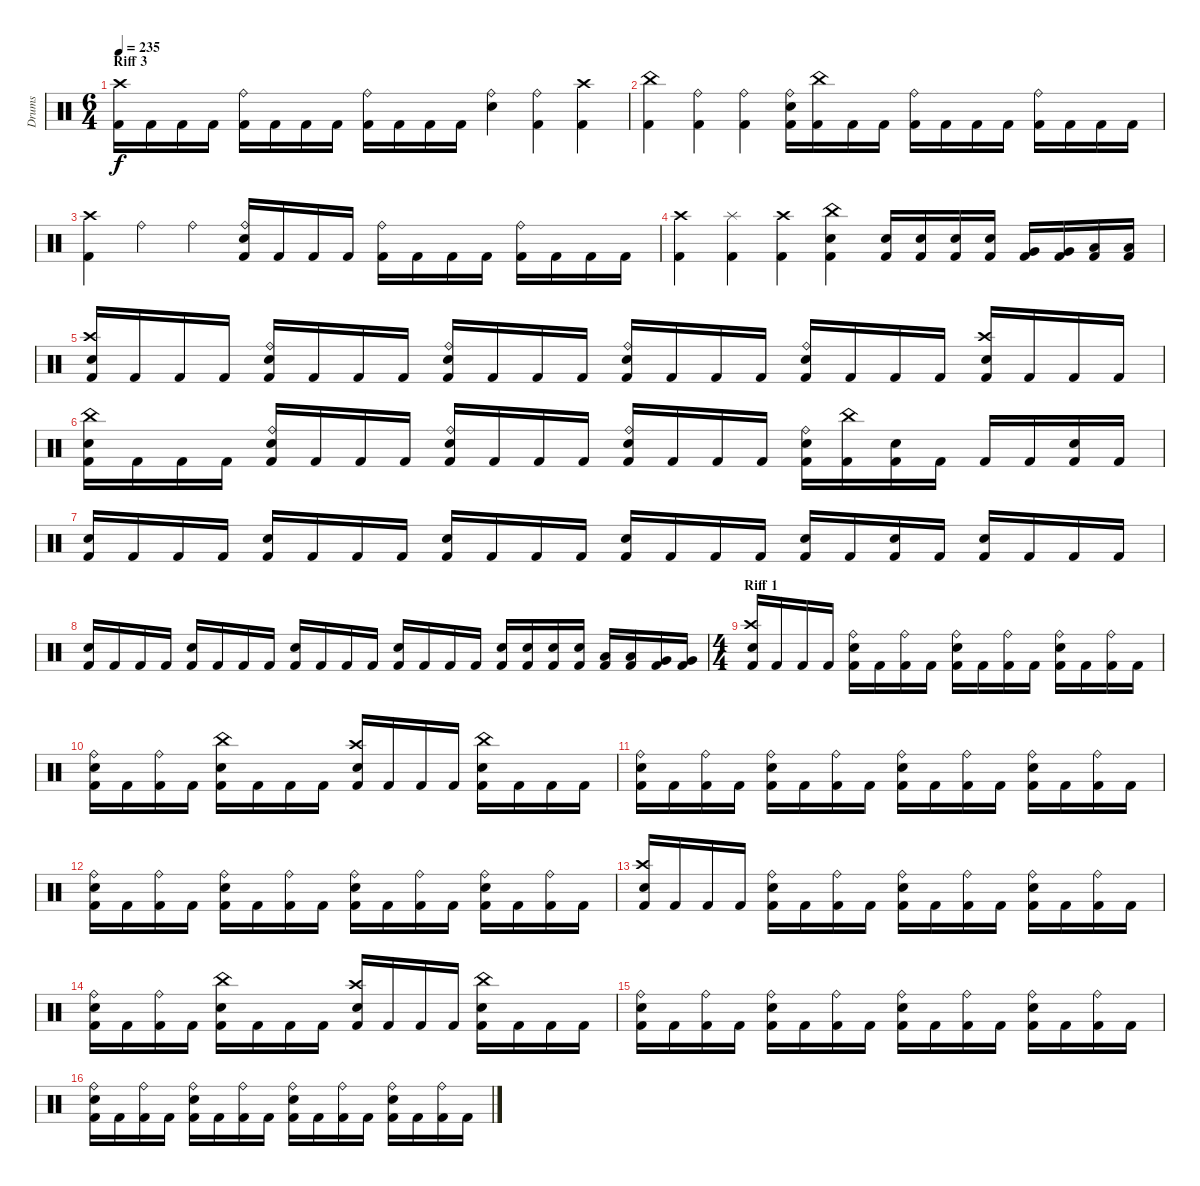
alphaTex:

\track ("Drums" "Drums") {instrument percussion}
\staff {score}
\articulation defaults
\ts (6 4)
\section ("" "Riff 3")
\tempo 235
\clef neutral
\ks c
("Kick (hit) 2" "Crash high (hit)").16{dy f} "Kick (hit) 2".16 "Kick (hit) 2".16 "Kick (hit) 2".16 ("Kick (hit) 2" "Ride (bell)").16 "Kick (hit) 2".16 "Kick (hit) 2".16 "Kick (hit) 2".16 ("Kick (hit) 2" "Ride (bell)").16 "Kick (hit) 2".16 "Kick (hit) 2".16 "Kick (hit) 2".16 ("Snare (hit) 2" "Ride (bell)").4 ("Kick (hit) 2" "Ride (bell)").4 ("Kick (hit) 2" "Crash high (hit)").4 |
("Kick (hit) 2" "China (hit)").4 ("Kick (hit) 2" "Ride (bell)").4 ("Kick (hit) 2" "Ride (bell)").4 ("Kick (hit) 2" "Snare (hit) 2" "Ride (bell)").16 ("Kick (hit) 2" "China (hit)").16 "Kick (hit) 2".16 "Kick (hit) 2".16 ("Kick (hit) 2" "Ride (bell)").16 "Kick (hit) 2".16 "Kick (hit) 2".16 "Kick (hit) 2".16 ("Kick (hit) 2" "Ride (bell)").16 "Kick (hit) 2".16 "Kick (hit) 2".16 "Kick (hit) 2".16 |
("Kick (hit) 2" "Crash high (hit)").4 "Ride (bell)".4 "Ride (bell)".4 ("Kick (hit) 2" "Snare (hit) 2" "Ride (bell)").16 "Kick (hit) 2".16 "Kick (hit) 2".16 "Kick (hit) 2".16 ("Kick (hit) 2" "Ride (bell)").16 "Kick (hit) 2".16 "Kick (hit) 2".16 "Kick (hit) 2".16 ("Kick (hit) 2" "Ride (bell)").16 "Kick (hit) 2".16 "Kick (hit) 2".16 "Kick (hit) 2".16 |
("Kick (hit) 2" "Crash high (hit)").4 ("Kick (hit) 2" "Splash (hit)").4 ("Kick (hit) 2" "Crash high (hit)").4 ("Kick (hit) 2" "Snare (hit) 2" "China (hit)").4 ("Kick (hit) 2" "Snare (hit) 2").16 ("Kick (hit) 2" "Snare (hit) 2").16 ("Kick (hit) 2" "Snare (hit) 2").16 ("Kick (hit) 2" "Snare (hit) 2").16 ("Kick (hit) 2" "Very Low Tom (hit)").16 ("Kick (hit) 2" "Very Low Tom (hit)").16 ("Kick (hit) 2" "Low Floor Tom (hit)").16 ("Kick (hit) 2" "Low Floor Tom (hit)").16 |
("Kick (hit) 2" "Snare (hit) 2" "Crash high (hit)").16 "Kick (hit) 2".16 "Kick (hit) 2".16 "Kick (hit) 2".16 ("Kick (hit) 2" "Snare (hit) 2" "Ride (bell)").16 "Kick (hit) 2".16 "Kick (hit) 2".16 "Kick (hit) 2".16 ("Kick (hit) 2" "Snare (hit) 2" "Ride (bell)").16 "Kick (hit) 2".16 "Kick (hit) 2".16 "Kick (hit) 2".16 ("Kick (hit) 2" "Snare (hit) 2" "Ride (bell)").16 "Kick (hit) 2".16 "Kick (hit) 2".16 "Kick (hit) 2".16 ("Kick (hit) 2" "Snare (hit) 2" "Ride (bell)").16 "Kick (hit) 2".16 "Kick (hit) 2".16 "Kick (hit) 2".16 ("Kick (hit) 2" "Snare (hit) 2" "Crash high (hit)").16 "Kick (hit) 2".16 "Kick (hit) 2".16 "Kick (hit) 2".16 |
("Kick (hit) 2" "Snare (hit) 2" "China (hit)").16 "Kick (hit) 2".16 "Kick (hit) 2".16 "Kick (hit) 2".16 ("Kick (hit) 2" "Snare (hit) 2" "Ride (bell)").16 "Kick (hit) 2".16 "Kick (hit) 2".16 "Kick (hit) 2".16 ("Kick (hit) 2" "Snare (hit) 2" "Ride (bell)").16 "Kick (hit) 2".16 "Kick (hit) 2".16 "Kick (hit) 2".16 ("Kick (hit) 2" "Snare (hit) 2" "Ride (bell)").16 "Kick (hit) 2".16 "Kick (hit) 2".16 "Kick (hit) 2".16 ("Kick (hit) 2" "Snare (hit) 2" "Ride (bell)").16 ("Kick (hit) 2" "China (hit)").16 ("Kick (hit) 2" "Snare (hit) 2").16 "Kick (hit) 2".16 "Kick (hit) 2".16 "Kick (hit) 2".16 ("Kick (hit) 2" "Snare (hit) 2").16 "Kick (hit) 2".16 |
("Kick (hit) 2" "Snare (hit) 2").16 "Kick (hit) 2".16 "Kick (hit) 2".16 "Kick (hit) 2".16 ("Kick (hit) 2" "Snare (hit) 2").16 "Kick (hit) 2".16 "Kick (hit) 2".16 "Kick (hit) 2".16 ("Kick (hit) 2" "Snare (hit) 2").16 "Kick (hit) 2".16 "Kick (hit) 2".16 "Kick (hit) 2".16 ("Kick (hit) 2" "Snare (hit) 2").16 "Kick (hit) 2".16 "Kick (hit) 2".16 "Kick (hit) 2".16 ("Kick (hit) 2" "Snare (hit) 2").16 "Kick (hit) 2".16 ("Kick (hit) 2" "Snare (hit) 2").16 "Kick (hit) 2".16 ("Kick (hit) 2" "Snare (hit) 2").16 "Kick (hit) 2".16 "Kick (hit) 2".16 "Kick (hit) 2".16 |
("Kick (hit) 2" "Snare (hit) 2").16 "Kick (hit) 2".16 "Kick (hit) 2".16 "Kick (hit) 2".16 ("Kick (hit) 2" "Snare (hit) 2").16 "Kick (hit) 2".16 "Kick (hit) 2".16 "Kick (hit) 2".16 ("Kick (hit) 2" "Snare (hit) 2").16 "Kick (hit) 2".16 "Kick (hit) 2".16 "Kick (hit) 2".16 ("Kick (hit) 2" "Snare (hit) 2").16 "Kick (hit) 2".16 "Kick (hit) 2".16 "Kick (hit) 2".16 ("Kick (hit) 2" "Snare (hit) 2").16 ("Kick (hit) 2" "Snare (hit) 2").16 ("Kick (hit) 2" "Snare (hit) 2").16 ("Kick (hit) 2" "Snare (hit) 2").16 ("Kick (hit) 2" "Low Tom (hit)").16 ("Kick (hit) 2" "Low Tom (hit)").16 ("Kick (hit) 2" "Very Low Tom (hit)").16 ("Kick (hit) 2" "Very Low Tom (hit)").16 |
\ts (4 4)
\section ("" "Riff 1")
("Kick (hit) 2" "Snare (hit) 2" "Crash high (hit)").16 "Kick (hit) 2".16 "Kick (hit) 2".16 "Kick (hit) 2".16 ("Kick (hit) 2" "Snare (hit) 2" "Ride (bell)").16 "Kick (hit) 2".16 ("Kick (hit) 2" "Ride (bell)").16 "Kick (hit) 2".16 ("Kick (hit) 2" "Snare (hit) 2" "Ride (bell)").16 "Kick (hit) 2".16 ("Kick (hit) 2" "Ride (bell)").16 "Kick (hit) 2".16 ("Kick (hit) 2" "Snare (hit) 2" "Ride (bell)").16 "Kick (hit) 2".16 ("Kick (hit) 2" "Ride (bell)").16 "Kick (hit) 2".16 |
("Kick (hit) 2" "Snare (hit) 2" "Ride (bell)").16 "Kick (hit) 2".16 ("Kick (hit) 2" "Ride (bell)").16 "Kick (hit) 2".16 ("Kick (hit) 2" "Snare (hit) 2" "China (hit)").16 "Kick (hit) 2".16 "Kick (hit) 2".16 "Kick (hit) 2".16 ("Kick (hit) 2" "Snare (hit) 2" "Crash high (hit)").16 "Kick (hit) 2".16 "Kick (hit) 2".16 "Kick (hit) 2".16 ("Kick (hit) 2" "Snare (hit) 2" "China (hit)").16 "Kick (hit) 2".16 "Kick (hit) 2".16 "Kick (hit) 2".16 |
("Kick (hit) 2" "Snare (hit) 2" "Ride (bell)").16 "Kick (hit) 2".16 ("Kick (hit) 2" "Ride (bell)").16 "Kick (hit) 2".16 ("Kick (hit) 2" "Snare (hit) 2" "Ride (bell)").16 "Kick (hit) 2".16 ("Kick (hit) 2" "Ride (bell)").16 "Kick (hit) 2".16 ("Kick (hit) 2" "Snare (hit) 2" "Ride (bell)").16 "Kick (hit) 2".16 ("Kick (hit) 2" "Ride (bell)").16 "Kick (hit) 2".16 ("Kick (hit) 2" "Snare (hit) 2" "Ride (bell)").16 "Kick (hit) 2".16 ("Kick (hit) 2" "Ride (bell)").16 "Kick (hit) 2".16 |
("Kick (hit) 2" "Snare (hit) 2" "Ride (bell)").16 "Kick (hit) 2".16 ("Kick (hit) 2" "Ride (bell)").16 "Kick (hit) 2".16 ("Kick (hit) 2" "Snare (hit) 2" "Ride (bell)").16 "Kick (hit) 2".16 ("Kick (hit) 2" "Ride (bell)").16 "Kick (hit) 2".16 ("Kick (hit) 2" "Snare (hit) 2" "Ride (bell)").16 "Kick (hit) 2".16 ("Kick (hit) 2" "Ride (bell)").16 "Kick (hit) 2".16 ("Kick (hit) 2" "Snare (hit) 2" "Ride (bell)").16 "Kick (hit) 2".16 ("Kick (hit) 2" "Ride (bell)").16 "Kick (hit) 2".16 |
("Kick (hit) 2" "Snare (hit) 2" "Crash high (hit)").16 "Kick (hit) 2".16 "Kick (hit) 2".16 "Kick (hit) 2".16 ("Kick (hit) 2" "Snare (hit) 2" "Ride (bell)").16 "Kick (hit) 2".16 ("Kick (hit) 2" "Ride (bell)").16 "Kick (hit) 2".16 ("Kick (hit) 2" "Snare (hit) 2" "Ride (bell)").16 "Kick (hit) 2".16 ("Kick (hit) 2" "Ride (bell)").16 "Kick (hit) 2".16 ("Kick (hit) 2" "Snare (hit) 2" "Ride (bell)").16 "Kick (hit) 2".16 ("Kick (hit) 2" "Ride (bell)").16 "Kick (hit) 2".16 |
("Kick (hit) 2" "Snare (hit) 2" "Ride (bell)").16 "Kick (hit) 2".16 ("Kick (hit) 2" "Ride (bell)").16 "Kick (hit) 2".16 ("Kick (hit) 2" "Snare (hit) 2" "China (hit)").16 "Kick (hit) 2".16 "Kick (hit) 2".16 "Kick (hit) 2".16 ("Kick (hit) 2" "Snare (hit) 2" "Crash high (hit)").16 "Kick (hit) 2".16 "Kick (hit) 2".16 "Kick (hit) 2".16 ("Kick (hit) 2" "Snare (hit) 2" "China (hit)").16 "Kick (hit) 2".16 "Kick (hit) 2".16 "Kick (hit) 2".16 |
("Kick (hit) 2" "Snare (hit) 2" "Ride (bell)").16 "Kick (hit) 2".16 ("Kick (hit) 2" "Ride (bell)").16 "Kick (hit) 2".16 ("Kick (hit) 2" "Snare (hit) 2" "Ride (bell)").16 "Kick (hit) 2".16 ("Kick (hit) 2" "Ride (bell)").16 "Kick (hit) 2".16 ("Kick (hit) 2" "Snare (hit) 2" "Ride (bell)").16 "Kick (hit) 2".16 ("Kick (hit) 2" "Ride (bell)").16 "Kick (hit) 2".16 ("Kick (hit) 2" "Snare (hit) 2" "Ride (bell)").16 "Kick (hit) 2".16 ("Kick (hit) 2" "Ride (bell)").16 "Kick (hit) 2".16 |
("Kick (hit) 2" "Snare (hit) 2" "Ride (bell)").16 "Kick (hit) 2".16 ("Kick (hit) 2" "Ride (bell)").16 "Kick (hit) 2".16 ("Kick (hit) 2" "Snare (hit) 2" "Ride (bell)").16 "Kick (hit) 2".16 ("Kick (hit) 2" "Ride (bell)").16 "Kick (hit) 2".16 ("Kick (hit) 2" "Snare (hit) 2" "Ride (bell)").16 "Kick (hit) 2".16 ("Kick (hit) 2" "Ride (bell)").16 "Kick (hit) 2".16 ("Kick (hit) 2" "Snare (hit) 2" "Ride (bell)").16 "Kick (hit) 2".16 ("Kick (hit) 2" "Ride (bell)").16 "Kick (hit) 2".16
